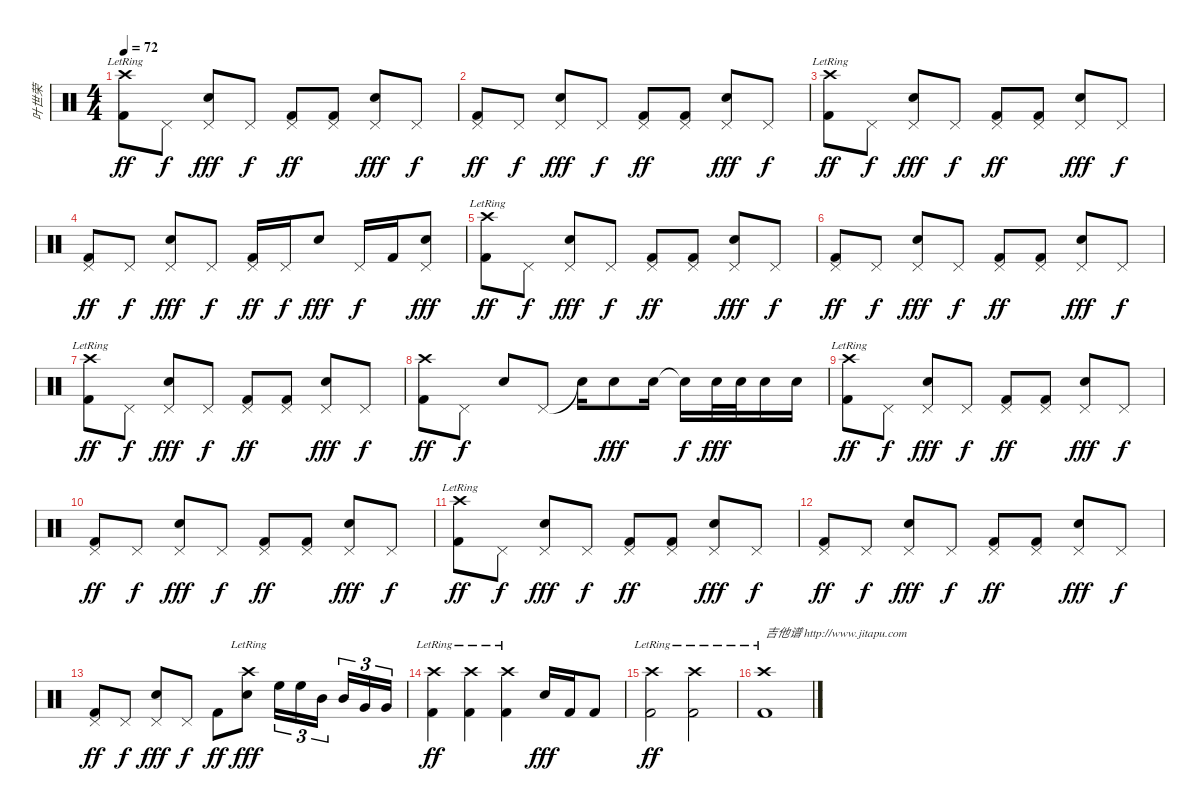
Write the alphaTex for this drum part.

\track ("叶世荣" "叶世荣") {instrument percussion}
\staff {score}
\articulation defaults
\ts (4 4)
\tempo 72
\clef neutral
\ks c
("Crash high (hit)"{lr} "Kick (hit) 2").8{dy ff} "Pedal Hi-Hat (hit)".8{dy f} ("Pedal Hi-Hat (hit)" "Electric Snare (hit)").8{dy fff} "Pedal Hi-Hat (hit)".8{dy f} ("Pedal Hi-Hat (hit)" "Kick (hit) 2").8{dy ff} ("Pedal Hi-Hat (hit)" "Kick (hit) 2").8 ("Pedal Hi-Hat (hit)" "Electric Snare (hit)").8{dy fff} "Pedal Hi-Hat (hit)".8{dy f} |
("Pedal Hi-Hat (hit)" "Kick (hit) 2").8{dy ff} "Pedal Hi-Hat (hit)".8{dy f} ("Pedal Hi-Hat (hit)" "Electric Snare (hit)").8{dy fff} "Pedal Hi-Hat (hit)".8{dy f} ("Pedal Hi-Hat (hit)" "Kick (hit) 2").8{dy ff} ("Pedal Hi-Hat (hit)" "Kick (hit) 2").8 ("Pedal Hi-Hat (hit)" "Electric Snare (hit)").8{dy fff} "Pedal Hi-Hat (hit)".8{dy f} |
("Crash high (hit)"{lr} "Kick (hit) 2").8{dy ff} "Pedal Hi-Hat (hit)".8{dy f} ("Pedal Hi-Hat (hit)" "Electric Snare (hit)").8{dy fff} "Pedal Hi-Hat (hit)".8{dy f} ("Pedal Hi-Hat (hit)" "Kick (hit) 2").8{dy ff} ("Pedal Hi-Hat (hit)" "Kick (hit) 2").8 ("Pedal Hi-Hat (hit)" "Electric Snare (hit)").8{dy fff} "Pedal Hi-Hat (hit)".8{dy f} |
("Pedal Hi-Hat (hit)" "Kick (hit) 2").8{dy ff} "Pedal Hi-Hat (hit)".8{dy f} ("Pedal Hi-Hat (hit)" "Electric Snare (hit)").8{dy fff} "Pedal Hi-Hat (hit)".8{dy f} ("Pedal Hi-Hat (hit)" "Kick (hit) 2").16{dy ff} "Pedal Hi-Hat (hit)".16{dy f} "Electric Snare (hit)".8{dy fff} "Pedal Hi-Hat (hit)".16{dy f} "Kick (hit) 2".16 ("Pedal Hi-Hat (hit)" "Electric Snare (hit)").8{dy fff} |
("Crash high (hit)"{lr} "Kick (hit) 2").8{dy ff} "Pedal Hi-Hat (hit)".8{dy f} ("Pedal Hi-Hat (hit)" "Electric Snare (hit)").8{dy fff} "Pedal Hi-Hat (hit)".8{dy f} ("Pedal Hi-Hat (hit)" "Kick (hit) 2").8{dy ff} ("Pedal Hi-Hat (hit)" "Kick (hit) 2").8 ("Pedal Hi-Hat (hit)" "Electric Snare (hit)").8{dy fff} "Pedal Hi-Hat (hit)".8{dy f} |
("Pedal Hi-Hat (hit)" "Kick (hit) 2").8{dy ff} "Pedal Hi-Hat (hit)".8{dy f} ("Pedal Hi-Hat (hit)" "Electric Snare (hit)").8{dy fff} "Pedal Hi-Hat (hit)".8{dy f} ("Pedal Hi-Hat (hit)" "Kick (hit) 2").8{dy ff} ("Pedal Hi-Hat (hit)" "Kick (hit) 2").8 ("Pedal Hi-Hat (hit)" "Electric Snare (hit)").8{dy fff} "Pedal Hi-Hat (hit)".8{dy f} |
("Crash high (hit)"{lr} "Kick (hit) 2").8{dy ff} "Pedal Hi-Hat (hit)".8{dy f} ("Pedal Hi-Hat (hit)" "Electric Snare (hit)").8{dy fff} "Pedal Hi-Hat (hit)".8{dy f} ("Pedal Hi-Hat (hit)" "Kick (hit) 2").8{dy ff} ("Pedal Hi-Hat (hit)" "Kick (hit) 2").8 ("Pedal Hi-Hat (hit)" "Electric Snare (hit)").8{dy fff} "Pedal Hi-Hat (hit)".8{dy f} |
("Crash high (hit)" "Kick (hit) 2").8{dy ff} "Pedal Hi-Hat (hit)".8{dy f} "Electric Snare (hit)".8 "Pedal Hi-Hat (hit)".8 "Snare (hit)"{t}.16 "Electric Snare (hit)".8{dy fff} "Electric Snare (hit)".16 "Snare (hit)"{t}.16{dy f} "Electric Snare (hit)".32{dy fff} "Electric Snare (hit)".32 "Electric Snare (hit)".16 "Electric Snare (hit)".16 |
("Crash high (hit)"{lr} "Kick (hit) 2").8{dy ff} "Pedal Hi-Hat (hit)".8{dy f} ("Pedal Hi-Hat (hit)" "Electric Snare (hit)").8{dy fff} "Pedal Hi-Hat (hit)".8{dy f} ("Pedal Hi-Hat (hit)" "Kick (hit) 2").8{dy ff} ("Pedal Hi-Hat (hit)" "Kick (hit) 2").8 ("Pedal Hi-Hat (hit)" "Electric Snare (hit)").8{dy fff} "Pedal Hi-Hat (hit)".8{dy f} |
("Pedal Hi-Hat (hit)" "Kick (hit) 2").8{dy ff} "Pedal Hi-Hat (hit)".8{dy f} ("Pedal Hi-Hat (hit)" "Electric Snare (hit)").8{dy fff} "Pedal Hi-Hat (hit)".8{dy f} ("Pedal Hi-Hat (hit)" "Kick (hit) 2").8{dy ff} ("Pedal Hi-Hat (hit)" "Kick (hit) 2").8 ("Pedal Hi-Hat (hit)" "Electric Snare (hit)").8{dy fff} "Pedal Hi-Hat (hit)".8{dy f} |
("Crash high (hit)"{lr} "Kick (hit) 2").8{dy ff} "Pedal Hi-Hat (hit)".8{dy f} ("Pedal Hi-Hat (hit)" "Electric Snare (hit)").8{dy fff} "Pedal Hi-Hat (hit)".8{dy f} ("Pedal Hi-Hat (hit)" "Kick (hit) 2").8{dy ff} ("Pedal Hi-Hat (hit)" "Kick (hit) 2").8 ("Pedal Hi-Hat (hit)" "Electric Snare (hit)").8{dy fff} "Pedal Hi-Hat (hit)".8{dy f} |
("Pedal Hi-Hat (hit)" "Kick (hit) 2").8{dy ff} "Pedal Hi-Hat (hit)".8{dy f} ("Pedal Hi-Hat (hit)" "Electric Snare (hit)").8{dy fff} "Pedal Hi-Hat (hit)".8{dy f} ("Pedal Hi-Hat (hit)" "Kick (hit) 2").8{dy ff} ("Pedal Hi-Hat (hit)" "Kick (hit) 2").8 ("Pedal Hi-Hat (hit)" "Electric Snare (hit)").8{dy fff} "Pedal Hi-Hat (hit)".8{dy f} |
("Pedal Hi-Hat (hit)" "Kick (hit) 2").8{dy ff} "Pedal Hi-Hat (hit)".8{dy f} ("Pedal Hi-Hat (hit)" "Electric Snare (hit)").8{dy fff} "Pedal Hi-Hat (hit)".8{dy f} "Kick (hit) 2".8{dy ff} ("Crash high (hit)"{lr} "Electric Snare (hit)").8{dy fff} "High Floor Tom (hit)".16{tu (3 2)} "High Floor Tom (hit)".16{tu (3 2)} "Mid Tom (hit)".16{tu (3 2) beam splitsecondary} "Mid Tom (hit)".16{tu (3 2)} "Very Low Tom (hit)".16{tu (3 2)} "Very Low Tom (hit)".16{tu (3 2)} |
("Crash high (hit)"{lr} "Kick (hit) 2").4{dy ff} ("Crash high (hit)"{lr} "Kick (hit) 2").4 ("Crash high (hit)"{lr} "Kick (hit) 2").4 "Electric Snare (hit)".16{dy fff} "Kick (hit) 2".16 "Kick (hit) 2".8 |
("Crash high (hit)"{lr} "Kick (hit) 2").2{dy ff} ("Crash high (hit)"{lr} "Kick (hit) 2").2 |
("Crash high (hit)"{lr} "Kick (hit) 2").1{txt "吉他谱 http://www.jitapu.com"}
